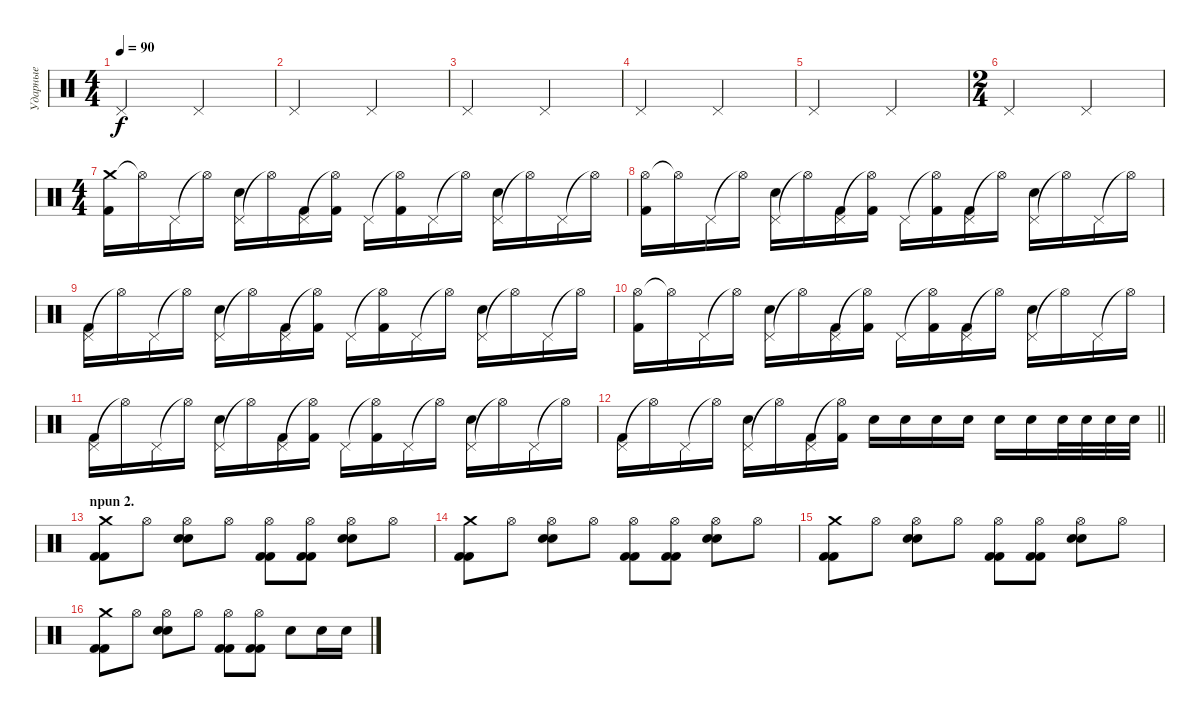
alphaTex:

\track ("Ударные" "Ударные") {instrument percussion}
\staff {score}
\articulation defaults
\ts (4 4)
\tempo 90
\clef neutral
\ks c "Pedal Hi-Hat (hit)".2{dy f} "Pedal Hi-Hat (hit)".2
|
"Pedal Hi-Hat (hit)".2 "Pedal Hi-Hat (hit)".2 |
"Pedal Hi-Hat (hit)".2 "Pedal Hi-Hat (hit)".2 |
"Pedal Hi-Hat (hit)".2 "Pedal Hi-Hat (hit)".2 |
"Pedal Hi-Hat (hit)".2 "Pedal Hi-Hat (hit)".2 |
\ts (2 4)
"Pedal Hi-Hat (hit)".2 "Pedal Hi-Hat (hit)".2 |
\ts (4 4)
("Crash medium (hit)" "Kick (hit) 2").16 "Hi-Hat (open)"{t}.16 "Pedal Hi-Hat (hit)".16 "Hi-Hat (open)"{t}.16 ("Pedal Hi-Hat (hit)" "Snare (hit) 2").16 "Hi-Hat (open)"{t}.16 ("Pedal Hi-Hat (hit)" "Kick (hit) 2").16 ("Hi-Hat (open)"{t} "Kick (hit) 2").16 "Pedal Hi-Hat (hit)".16 ("Hi-Hat (open)"{t} "Kick (hit) 2").16 "Pedal Hi-Hat (hit)".16 "Hi-Hat (open)"{t}.16 ("Pedal Hi-Hat (hit)" "Snare (hit) 2").16 "Hi-Hat (open)"{t}.16 "Pedal Hi-Hat (hit)".16 "Hi-Hat (open)"{t}.16 |
("Hi-Hat (open)" "Kick (hit) 2").16 "Hi-Hat (open)"{t}.16 "Pedal Hi-Hat (hit)".16 "Hi-Hat (open)"{t}.16 ("Pedal Hi-Hat (hit)" "Snare (hit) 2").16 "Hi-Hat (open)"{t}.16 ("Pedal Hi-Hat (hit)" "Kick (hit) 2").16 ("Hi-Hat (open)"{t} "Kick (hit) 2").16 "Pedal Hi-Hat (hit)".16 ("Hi-Hat (open)"{t} "Kick (hit) 2").16 ("Pedal Hi-Hat (hit)" "Kick (hit) 2").16 "Hi-Hat (open)"{t}.16 ("Pedal Hi-Hat (hit)" "Snare (hit) 2").16 "Hi-Hat (open)"{t}.16 "Pedal Hi-Hat (hit)".16 "Hi-Hat (open)"{t}.16 |
("Pedal Hi-Hat (hit)" "Kick (hit) 2").16 "Hi-Hat (open)"{t}.16 "Pedal Hi-Hat (hit)".16 "Hi-Hat (open)"{t}.16 ("Pedal Hi-Hat (hit)" "Snare (hit) 2").16 "Hi-Hat (open)"{t}.16 ("Pedal Hi-Hat (hit)" "Kick (hit) 2").16 ("Hi-Hat (open)"{t} "Kick (hit) 2").16 "Pedal Hi-Hat (hit)".16 ("Hi-Hat (open)"{t} "Kick (hit) 2").16 "Pedal Hi-Hat (hit)".16 "Hi-Hat (open)"{t}.16 ("Pedal Hi-Hat (hit)" "Snare (hit) 2").16 "Hi-Hat (open)"{t}.16 "Pedal Hi-Hat (hit)".16 "Hi-Hat (open)"{t}.16 |
("Hi-Hat (open)" "Kick (hit) 2").16 "Hi-Hat (open)"{t}.16 "Pedal Hi-Hat (hit)".16 "Hi-Hat (open)"{t}.16 ("Pedal Hi-Hat (hit)" "Snare (hit) 2").16 "Hi-Hat (open)"{t}.16 ("Pedal Hi-Hat (hit)" "Kick (hit) 2").16 ("Hi-Hat (open)"{t} "Kick (hit) 2").16 "Pedal Hi-Hat (hit)".16 ("Hi-Hat (open)"{t} "Kick (hit) 2").16 ("Pedal Hi-Hat (hit)" "Kick (hit) 2").16 "Hi-Hat (open)"{t}.16 ("Pedal Hi-Hat (hit)" "Snare (hit) 2").16 "Hi-Hat (open)"{t}.16 "Pedal Hi-Hat (hit)".16 "Hi-Hat (open)"{t}.16 |
("Pedal Hi-Hat (hit)" "Kick (hit) 2").16 "Hi-Hat (open)"{t}.16 "Pedal Hi-Hat (hit)".16 "Hi-Hat (open)"{t}.16 ("Pedal Hi-Hat (hit)" "Snare (hit) 2").16 "Hi-Hat (open)"{t}.16 ("Pedal Hi-Hat (hit)" "Kick (hit) 2").16 ("Hi-Hat (open)"{t} "Kick (hit) 2").16 "Pedal Hi-Hat (hit)".16 ("Hi-Hat (open)"{t} "Kick (hit) 2").16 "Pedal Hi-Hat (hit)".16 "Hi-Hat (open)"{t}.16 ("Pedal Hi-Hat (hit)" "Snare (hit) 2").16 "Hi-Hat (open)"{t}.16 "Pedal Hi-Hat (hit)".16 "Hi-Hat (open)"{t}.16 |
\barLineRight lightlight
("Pedal Hi-Hat (hit)" "Kick (hit) 2").16 "Hi-Hat (open)"{t}.16 "Pedal Hi-Hat (hit)".16 "Hi-Hat (open)"{t}.16 ("Pedal Hi-Hat (hit)" "Snare (hit) 2").16 "Hi-Hat (open)"{t}.16 ("Pedal Hi-Hat (hit)" "Kick (hit) 2").16 ("Hi-Hat (open)"{t} "Kick (hit) 2").16 "Snare (hit) 2".16 "Snare (hit) 2".16 "Snare (hit) 2".16 "Snare (hit) 2".16 "Snare (hit) 2".16 "Snare (hit) 2".16 "Snare (hit) 2".32 "Snare (hit) 2".32 "Snare (hit) 2".32 "Snare (hit) 2".32 |
\section ("" "npun 2.  ")
("Crash medium (hit)" "Kick (hit) 2" "Kick (hit) 2").8 "Hi-Hat (open)".8 ("Hi-Hat (open)" "Snare (hit) 2" "Snare (hit) 2").8 "Hi-Hat (open)".8 ("Hi-Hat (open)" "Kick (hit) 2" "Kick (hit) 2").8 ("Hi-Hat (open)" "Kick (hit) 2" "Kick (hit) 2").8 ("Hi-Hat (open)" "Snare (hit) 2" "Snare (hit) 2").8 "Hi-Hat (open)".8 |
("Crash medium (hit)" "Kick (hit) 2" "Kick (hit) 2").8 "Hi-Hat (open)".8 ("Hi-Hat (open)" "Snare (hit) 2" "Snare (hit) 2").8 "Hi-Hat (open)".8 ("Hi-Hat (open)" "Kick (hit) 2" "Kick (hit) 2").8 ("Hi-Hat (open)" "Kick (hit) 2" "Kick (hit) 2").8 ("Hi-Hat (open)" "Snare (hit) 2" "Snare (hit) 2").8 "Hi-Hat (open)".8 |
("Crash medium (hit)" "Kick (hit) 2" "Kick (hit) 2").8 "Hi-Hat (open)".8 ("Hi-Hat (open)" "Snare (hit) 2" "Snare (hit) 2").8 "Hi-Hat (open)".8 ("Hi-Hat (open)" "Kick (hit) 2" "Kick (hit) 2").8 ("Hi-Hat (open)" "Kick (hit) 2" "Kick (hit) 2").8 ("Hi-Hat (open)" "Snare (hit) 2" "Snare (hit) 2").8 "Hi-Hat (open)".8 |
("Crash medium (hit)" "Kick (hit) 2" "Kick (hit) 2").8 "Hi-Hat (open)".8 ("Hi-Hat (open)" "Snare (hit) 2" "Snare (hit) 2").8 "Hi-Hat (open)".8 ("Hi-Hat (open)" "Kick (hit) 2" "Kick (hit) 2").8 ("Hi-Hat (open)" "Kick (hit) 2" "Kick (hit) 2").8 "Snare (hit) 2".8 "Snare (hit) 2".16 "Snare (hit) 2".16
